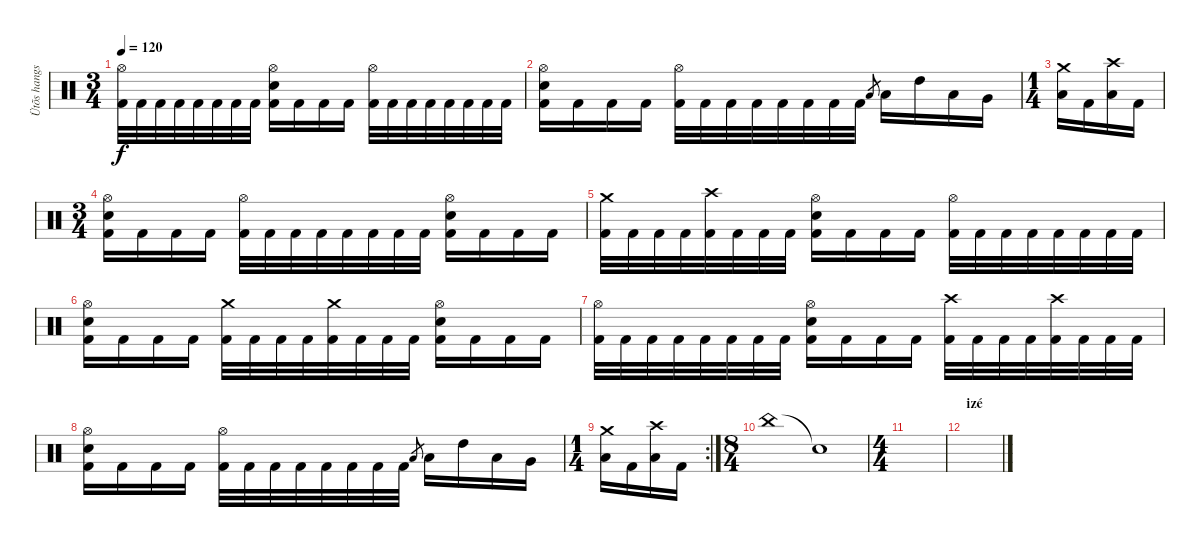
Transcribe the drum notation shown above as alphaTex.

\track ("Ütõs hangszer" "Ütõs hangs") {instrument percussion}
\staff {score}
\articulation defaults
\ts (3 4)
\tempo 120
\clef neutral
\ks c
("Hi-Hat (open)" "Kick (hit) 2").32{dy f} "Kick (hit) 2".32 "Kick (hit) 2".32 "Kick (hit) 2".32 "Kick (hit) 2".32 "Kick (hit) 2".32 "Kick (hit) 2".32 "Kick (hit) 2".32 ("Hi-Hat (open)" "Electric Snare (hit)" "Kick (hit) 2").16 "Kick (hit) 2".16 "Kick (hit) 2".16 "Kick (hit) 2".16 ("Hi-Hat (open)" "Kick (hit) 2").32 "Kick (hit) 2".32 "Kick (hit) 2".32 "Kick (hit) 2".32 "Kick (hit) 2".32 "Kick (hit) 2".32 "Kick (hit) 2".32 "Kick (hit) 2".32 |
("Hi-Hat (open)" "Electric Snare (hit)" "Kick (hit) 2").16 "Kick (hit) 2".16 "Kick (hit) 2".16 "Kick (hit) 2".16 ("Hi-Hat (open)" "Kick (hit) 2").32 "Kick (hit) 2".32 "Kick (hit) 2".32 "Kick (hit) 2".32 "Kick (hit) 2".32 "Kick (hit) 2".32 "Kick (hit) 2".32 "Kick (hit) 2".32 "Low Tom (hit)".8{gr} "Low Tom (hit)".16 "High Tom (hit)".16 "Low Tom (hit)".16 "Very Low Tom (hit)".16 |
\ts (1 4)
("Crash medium (hit)" "Low Floor Tom (hit)").16 "Kick (hit) 2".16 ("Crash high (hit)" "Low Floor Tom (hit)").16 "Kick (hit) 2".16 |
\ts (3 4)
("Hi-Hat (open)" "Electric Snare (hit)" "Kick (hit) 2").16 "Kick (hit) 2".16 "Kick (hit) 2".16 "Kick (hit) 2".16 ("Hi-Hat (open)" "Kick (hit) 2").32 "Kick (hit) 2".32 "Kick (hit) 2".32 "Kick (hit) 2".32 "Kick (hit) 2".32 "Kick (hit) 2".32 "Kick (hit) 2".32 "Kick (hit) 2".32 ("Hi-Hat (open)" "Electric Snare (hit)" "Kick (hit) 2").16 "Kick (hit) 2".16 "Kick (hit) 2".16 "Kick (hit) 2".16 |
("Crash medium (hit)" "Kick (hit) 2").32 "Kick (hit) 2".32 "Kick (hit) 2".32 "Kick (hit) 2".32 ("Crash high (hit)" "Kick (hit) 2").32 "Kick (hit) 2".32 "Kick (hit) 2".32 "Kick (hit) 2".32 ("Hi-Hat (open)" "Electric Snare (hit)" "Kick (hit) 2").16 "Kick (hit) 2".16 "Kick (hit) 2".16 "Kick (hit) 2".16 ("Hi-Hat (open)" "Kick (hit) 2").32 "Kick (hit) 2".32 "Kick (hit) 2".32 "Kick (hit) 2".32 "Kick (hit) 2".32 "Kick (hit) 2".32 "Kick (hit) 2".32 "Kick (hit) 2".32 |
("Hi-Hat (open)" "Electric Snare (hit)" "Kick (hit) 2").16 "Kick (hit) 2".16 "Kick (hit) 2".16 "Kick (hit) 2".16 ("Crash medium (hit)" "Kick (hit) 2").32 "Kick (hit) 2".32 "Kick (hit) 2".32 "Kick (hit) 2".32 ("Crash medium (hit)" "Kick (hit) 2").32 "Kick (hit) 2".32 "Kick (hit) 2".32 "Kick (hit) 2".32 ("Hi-Hat (open)" "Electric Snare (hit)" "Kick (hit) 2").16 "Kick (hit) 2".16 "Kick (hit) 2".16 "Kick (hit) 2".16 |
("Hi-Hat (open)" "Kick (hit) 2").32 "Kick (hit) 2".32 "Kick (hit) 2".32 "Kick (hit) 2".32 "Kick (hit) 2".32 "Kick (hit) 2".32 "Kick (hit) 2".32 "Kick (hit) 2".32 ("Hi-Hat (open)" "Electric Snare (hit)" "Kick (hit) 2").16 "Kick (hit) 2".16 "Kick (hit) 2".16 "Kick (hit) 2".16 ("Crash high (hit)" "Kick (hit) 2").32 "Kick (hit) 2".32 "Kick (hit) 2".32 "Kick (hit) 2".32 ("Crash high (hit)" "Kick (hit) 2").32 "Kick (hit) 2".32 "Kick (hit) 2".32 "Kick (hit) 2".32 |
("Hi-Hat (open)" "Electric Snare (hit)" "Kick (hit) 2").16 "Kick (hit) 2".16 "Kick (hit) 2".16 "Kick (hit) 2".16 ("Hi-Hat (open)" "Kick (hit) 2").32 "Kick (hit) 2".32 "Kick (hit) 2".32 "Kick (hit) 2".32 "Kick (hit) 2".32 "Kick (hit) 2".32 "Kick (hit) 2".32 "Kick (hit) 2".32 "Low Tom (hit)".8{gr} "Low Tom (hit)".16 "High Tom (hit)".16 "Low Tom (hit)".16 "Very Low Tom (hit)".16 |
\rc 2
\ts (1 4)
("Crash medium (hit)" "Low Floor Tom (hit)").16 "Kick (hit) 2".16 ("Crash high (hit)" "Low Floor Tom (hit)").16 "Kick (hit) 2".16 |
\ts (8 4)
"China (hit)".1 "Snare (hit)"{t}.1 |
\ts (4 4)
|
\section ("" "izé")
